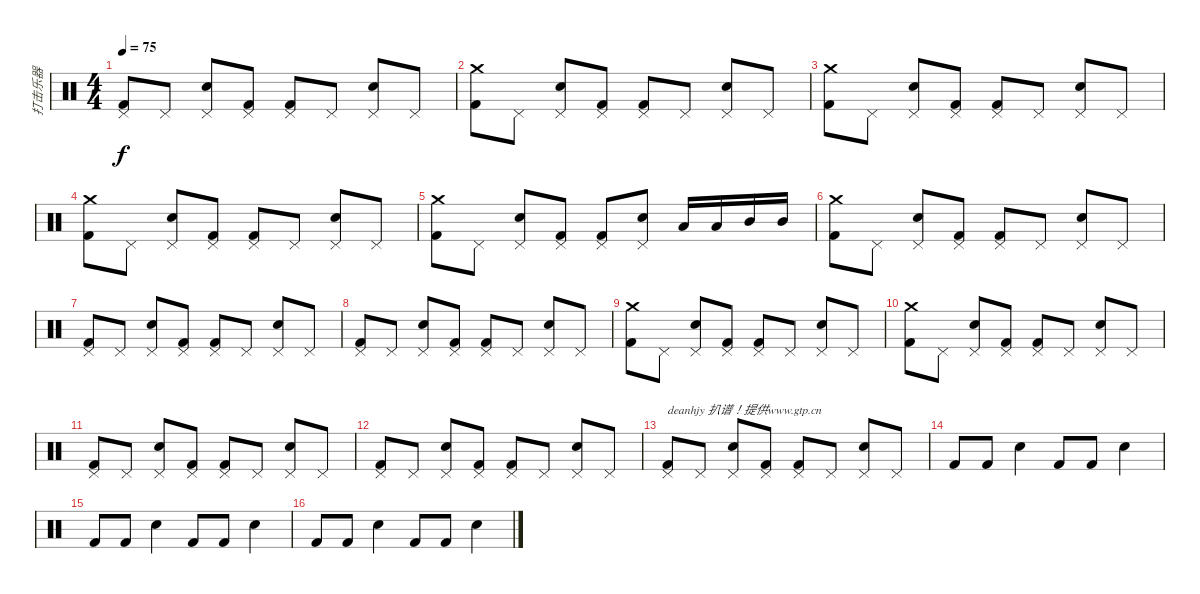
\track ("打击乐器" "打击乐器") {instrument percussion}
\staff {score}
\articulation defaults
\ts (4 4)
\tempo 75
\clef neutral
\ks c
("Pedal Hi-Hat (hit)" "Kick (hit) 2").8{dy f} "Pedal Hi-Hat (hit)".8 ("Pedal Hi-Hat (hit)" "Electric Snare (hit)").8 ("Pedal Hi-Hat (hit)" "Kick (hit) 2").8 ("Pedal Hi-Hat (hit)" "Kick (hit) 2").8 "Pedal Hi-Hat (hit)".8 ("Pedal Hi-Hat (hit)" "Electric Snare (hit)").8 "Pedal Hi-Hat (hit)".8 |
("Crash medium (hit)" "Kick (hit) 2").8 "Pedal Hi-Hat (hit)".8 ("Pedal Hi-Hat (hit)" "Electric Snare (hit)").8 ("Pedal Hi-Hat (hit)" "Kick (hit) 2").8 ("Pedal Hi-Hat (hit)" "Kick (hit) 2").8 "Pedal Hi-Hat (hit)".8 ("Pedal Hi-Hat (hit)" "Electric Snare (hit)").8 "Pedal Hi-Hat (hit)".8 |
("Crash medium (hit)" "Kick (hit) 2").8 "Pedal Hi-Hat (hit)".8 ("Pedal Hi-Hat (hit)" "Electric Snare (hit)").8 ("Pedal Hi-Hat (hit)" "Kick (hit) 2").8 ("Pedal Hi-Hat (hit)" "Kick (hit) 2").8 "Pedal Hi-Hat (hit)".8 ("Pedal Hi-Hat (hit)" "Electric Snare (hit)").8 "Pedal Hi-Hat (hit)".8 |
("Crash medium (hit)" "Kick (hit) 2").8 "Pedal Hi-Hat (hit)".8 ("Pedal Hi-Hat (hit)" "Electric Snare (hit)").8 ("Pedal Hi-Hat (hit)" "Kick (hit) 2").8 ("Pedal Hi-Hat (hit)" "Kick (hit) 2").8 "Pedal Hi-Hat (hit)".8 ("Pedal Hi-Hat (hit)" "Electric Snare (hit)").8 "Pedal Hi-Hat (hit)".8 |
("Crash medium (hit)" "Kick (hit) 2").8 "Pedal Hi-Hat (hit)".8 ("Pedal Hi-Hat (hit)" "Electric Snare (hit)").8 ("Pedal Hi-Hat (hit)" "Kick (hit) 2").8 ("Pedal Hi-Hat (hit)" "Kick (hit) 2").8 ("Pedal Hi-Hat (hit)" "Electric Snare (hit)").8 "Low Tom (hit)".16 "Low Tom (hit)".16 "Mid Tom (hit)".16 "Mid Tom (hit)".16 |
("Crash medium (hit)" "Kick (hit) 2").8 "Pedal Hi-Hat (hit)".8 ("Pedal Hi-Hat (hit)" "Electric Snare (hit)").8 ("Pedal Hi-Hat (hit)" "Kick (hit) 2").8 ("Pedal Hi-Hat (hit)" "Kick (hit) 2").8 "Pedal Hi-Hat (hit)".8 ("Pedal Hi-Hat (hit)" "Electric Snare (hit)").8 "Pedal Hi-Hat (hit)".8 |
("Pedal Hi-Hat (hit)" "Kick (hit) 2").8 "Pedal Hi-Hat (hit)".8 ("Pedal Hi-Hat (hit)" "Electric Snare (hit)").8 ("Pedal Hi-Hat (hit)" "Kick (hit) 2").8 ("Pedal Hi-Hat (hit)" "Kick (hit) 2").8 "Pedal Hi-Hat (hit)".8 ("Pedal Hi-Hat (hit)" "Electric Snare (hit)").8 "Pedal Hi-Hat (hit)".8 |
("Pedal Hi-Hat (hit)" "Kick (hit) 2").8 "Pedal Hi-Hat (hit)".8 ("Pedal Hi-Hat (hit)" "Electric Snare (hit)").8 ("Pedal Hi-Hat (hit)" "Kick (hit) 2").8 ("Pedal Hi-Hat (hit)" "Kick (hit) 2").8 "Pedal Hi-Hat (hit)".8 ("Pedal Hi-Hat (hit)" "Electric Snare (hit)").8 "Pedal Hi-Hat (hit)".8 |
("Crash medium (hit)" "Kick (hit) 2").8 "Pedal Hi-Hat (hit)".8 ("Pedal Hi-Hat (hit)" "Electric Snare (hit)").8 ("Pedal Hi-Hat (hit)" "Kick (hit) 2").8 ("Pedal Hi-Hat (hit)" "Kick (hit) 2").8 "Pedal Hi-Hat (hit)".8 ("Pedal Hi-Hat (hit)" "Electric Snare (hit)").8 "Pedal Hi-Hat (hit)".8 |
("Crash medium (hit)" "Kick (hit) 2").8 "Pedal Hi-Hat (hit)".8 ("Pedal Hi-Hat (hit)" "Electric Snare (hit)").8 ("Pedal Hi-Hat (hit)" "Kick (hit) 2").8 ("Pedal Hi-Hat (hit)" "Kick (hit) 2").8 "Pedal Hi-Hat (hit)".8 ("Pedal Hi-Hat (hit)" "Electric Snare (hit)").8 "Pedal Hi-Hat (hit)".8 |
("Pedal Hi-Hat (hit)" "Kick (hit) 2").8 "Pedal Hi-Hat (hit)".8 ("Pedal Hi-Hat (hit)" "Electric Snare (hit)").8 ("Pedal Hi-Hat (hit)" "Kick (hit) 2").8 ("Pedal Hi-Hat (hit)" "Kick (hit) 2").8 "Pedal Hi-Hat (hit)".8 ("Pedal Hi-Hat (hit)" "Electric Snare (hit)").8 "Pedal Hi-Hat (hit)".8 |
("Pedal Hi-Hat (hit)" "Kick (hit) 2").8 "Pedal Hi-Hat (hit)".8 ("Pedal Hi-Hat (hit)" "Electric Snare (hit)").8 ("Pedal Hi-Hat (hit)" "Kick (hit) 2").8 ("Pedal Hi-Hat (hit)" "Kick (hit) 2").8 "Pedal Hi-Hat (hit)".8 ("Pedal Hi-Hat (hit)" "Electric Snare (hit)").8 "Pedal Hi-Hat (hit)".8 |
("Pedal Hi-Hat (hit)" "Kick (hit) 2").8{txt "deanhjy 扒谱！提供www.gtp.cn"} "Pedal Hi-Hat (hit)".8 ("Pedal Hi-Hat (hit)" "Electric Snare (hit)").8 ("Pedal Hi-Hat (hit)" "Kick (hit) 2").8 ("Pedal Hi-Hat (hit)" "Kick (hit) 2").8 "Pedal Hi-Hat (hit)".8 ("Pedal Hi-Hat (hit)" "Electric Snare (hit)").8 "Pedal Hi-Hat (hit)".8 |
"Kick (hit) 2".8 "Kick (hit) 2".8 "Snare (hit) 2".4 "Kick (hit) 2".8 "Kick (hit) 2".8 "Snare (hit) 2".4 |
"Kick (hit) 2".8 "Kick (hit) 2".8 "Snare (hit) 2".4 "Kick (hit) 2".8 "Kick (hit) 2".8 "Snare (hit) 2".4 |
"Kick (hit) 2".8 "Kick (hit) 2".8 "Snare (hit) 2".4 "Kick (hit) 2".8 "Kick (hit) 2".8 "Snare (hit) 2".4
